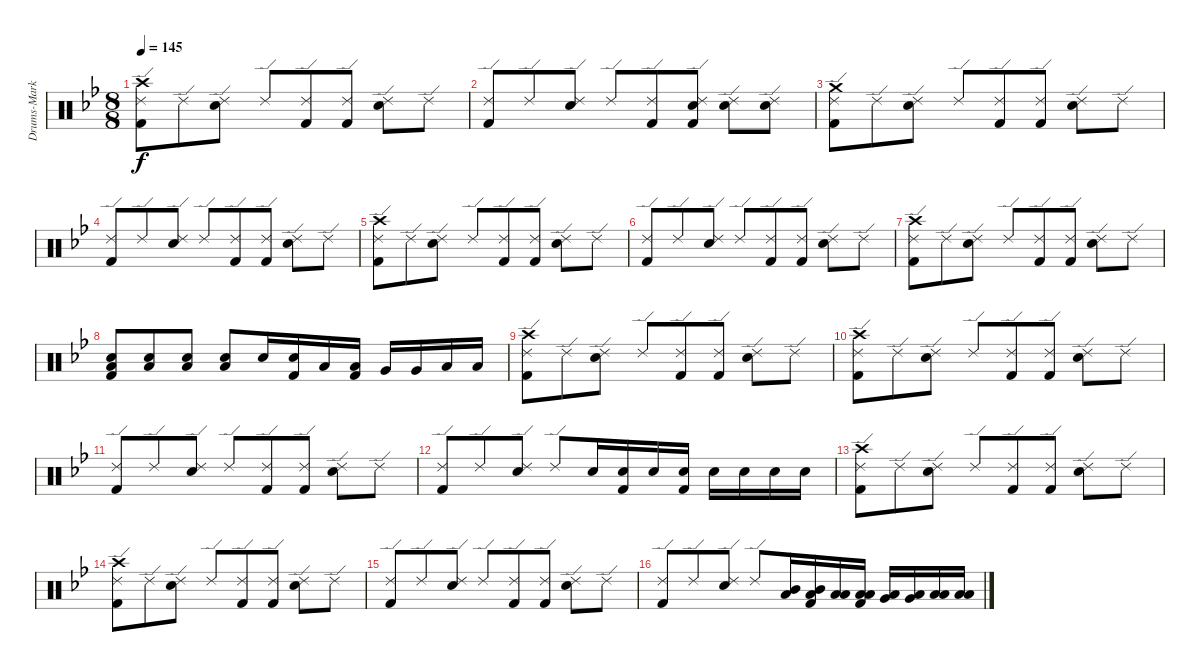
\track ("Drums-Marky" "Drums-Mark") {instrument percussion}
\staff {score}
\articulation defaults
\ts (8 8)
\tempo 145
\clef neutral
\ks bb
("Ride (edge) 2" "Kick (hit) 2" "Crash high (hit)").8{dy f} "Ride (edge) 2".8 ("Ride (edge) 2" "Snare (hit) 2").8 "Ride (edge) 2".8 ("Ride (edge) 2" "Kick (hit) 2").8 ("Ride (edge) 2" "Kick (hit) 2").8 ("Ride (edge) 2" "Snare (hit) 2").8 "Ride (edge) 2".8 |
("Ride (edge) 2" "Kick (hit) 2").8 "Ride (edge) 2".8 ("Ride (edge) 2" "Snare (hit) 2").8 "Ride (edge) 2".8 ("Ride (edge) 2" "Kick (hit) 2").8 ("Ride (edge) 2" "Snare (hit) 2" "Kick (hit) 2").8 ("Ride (edge) 2" "Snare (hit) 2").8 ("Ride (edge) 2" "Snare (hit) 2").8 |
("Ride (edge) 2" "Kick (hit) 2" "Crash medium (hit)").8 "Ride (edge) 2".8 ("Ride (edge) 2" "Snare (hit) 2").8 "Ride (edge) 2".8 ("Ride (edge) 2" "Kick (hit) 2").8 ("Ride (edge) 2" "Kick (hit) 2").8 ("Ride (edge) 2" "Snare (hit) 2").8 "Ride (edge) 2".8 |
("Ride (edge) 2" "Kick (hit) 2").8 "Ride (edge) 2".8 ("Ride (edge) 2" "Snare (hit) 2").8 "Ride (edge) 2".8 ("Ride (edge) 2" "Kick (hit) 2").8 ("Ride (edge) 2" "Kick (hit) 2").8 ("Ride (edge) 2" "Snare (hit) 2").8 "Ride (edge) 2".8 |
("Ride (edge) 2" "Kick (hit) 2" "Crash high (hit)").8 "Ride (edge) 2".8 ("Ride (edge) 2" "Snare (hit) 2").8 "Ride (edge) 2".8 ("Ride (edge) 2" "Kick (hit) 2").8 ("Ride (edge) 2" "Kick (hit) 2").8 ("Ride (edge) 2" "Snare (hit) 2").8 "Ride (edge) 2".8 |
("Ride (edge) 2" "Kick (hit) 2").8 "Ride (edge) 2".8 ("Ride (edge) 2" "Snare (hit) 2").8 "Ride (edge) 2".8 ("Ride (edge) 2" "Kick (hit) 2").8 ("Ride (edge) 2" "Kick (hit) 2").8 ("Ride (edge) 2" "Snare (hit) 2").8 "Ride (edge) 2".8 |
("Ride (edge) 2" "Kick (hit) 2" "Crash high (hit)").8 "Ride (edge) 2".8 ("Ride (edge) 2" "Snare (hit) 2").8 "Ride (edge) 2".8 ("Ride (edge) 2" "Kick (hit) 2").8 ("Ride (edge) 2" "Kick (hit) 2").8 ("Ride (edge) 2" "Snare (hit) 2").8 "Ride (edge) 2".8 |
("Low Floor Tom (hit)" "Snare (hit) 2" "Kick (hit) 2").8 ("Low Floor Tom (hit)" "Snare (hit) 2").8 ("Low Floor Tom (hit)" "Snare (hit) 2").8 ("Low Floor Tom (hit)" "Snare (hit) 2").8 "Snare (hit) 2".16 ("Snare (hit) 2" "Kick (hit) 2").16 "Low Tom (hit)".16 ("Low Tom (hit)" "Kick (hit) 2").16 "Very Low Tom (hit)".16 "Very Low Tom (hit)".16 "Low Floor Tom (hit)".16 "Low Floor Tom (hit)".16 |
("Ride (edge) 2" "Kick (hit) 2" "Crash high (hit)").8 "Ride (edge) 2".8 ("Ride (edge) 2" "Snare (hit) 2").8 "Ride (edge) 2".8 ("Ride (edge) 2" "Kick (hit) 2").8 ("Ride (edge) 2" "Kick (hit) 2").8 ("Ride (edge) 2" "Snare (hit) 2").8 "Ride (edge) 2".8 |
("Ride (edge) 2" "Kick (hit) 2" "Crash high (hit)").8 "Ride (edge) 2".8 ("Ride (edge) 2" "Snare (hit) 2").8 "Ride (edge) 2".8 ("Ride (edge) 2" "Kick (hit) 2").8 ("Ride (edge) 2" "Kick (hit) 2").8 ("Ride (edge) 2" "Snare (hit) 2").8 "Ride (edge) 2".8 |
("Ride (edge) 2" "Kick (hit) 2").8 "Ride (edge) 2".8 ("Ride (edge) 2" "Snare (hit) 2").8 "Ride (edge) 2".8 ("Ride (edge) 2" "Kick (hit) 2").8 ("Ride (edge) 2" "Kick (hit) 2").8 ("Ride (edge) 2" "Snare (hit) 2").8 "Ride (edge) 2".8 |
("Ride (edge) 2" "Kick (hit) 2").8 "Ride (edge) 2".8 ("Ride (edge) 2" "Snare (hit) 2").8 "Ride (edge) 2".8 "Snare (hit) 2".16 ("Snare (hit) 2" "Kick (hit) 2").16 "Snare (hit) 2".16 ("Snare (hit) 2" "Kick (hit) 2").16 "Snare (hit) 2".16 "Snare (hit) 2".16 "Snare (hit) 2".16 "Snare (hit) 2".16 |
("Ride (edge) 2" "Kick (hit) 2" "Crash high (hit)").8 "Ride (edge) 2".8 ("Ride (edge) 2" "Snare (hit) 2").8 "Ride (edge) 2".8 ("Ride (edge) 2" "Kick (hit) 2").8 ("Ride (edge) 2" "Kick (hit) 2").8 ("Ride (edge) 2" "Snare (hit) 2").8 "Ride (edge) 2".8 |
("Ride (edge) 2" "Kick (hit) 2" "Crash high (hit)").8 "Ride (edge) 2".8 ("Ride (edge) 2" "Snare (hit) 2").8 "Ride (edge) 2".8 ("Ride (edge) 2" "Kick (hit) 2").8 ("Ride (edge) 2" "Kick (hit) 2").8 ("Ride (edge) 2" "Snare (hit) 2").8 "Ride (edge) 2".8 |
("Ride (edge) 2" "Kick (hit) 2").8 "Ride (edge) 2".8 ("Ride (edge) 2" "Snare (hit) 2").8 "Ride (edge) 2".8 ("Ride (edge) 2" "Kick (hit) 2").8 ("Ride (edge) 2" "Kick (hit) 2").8 ("Ride (edge) 2" "Snare (hit) 2").8 "Ride (edge) 2".8 |
("Ride (edge) 2" "Kick (hit) 2").8 "Ride (edge) 2".8 ("Ride (edge) 2" "Snare (hit) 2").8 "Ride (edge) 2".8 ("Low Floor Tom (hit)" "Mid Tom (hit)").16 ("Low Floor Tom (hit)" "Mid Tom (hit)" "Kick (hit) 2").16 ("Low Floor Tom (hit)" "Low Tom (hit)").16 ("Low Floor Tom (hit)" "Low Tom (hit)" "Kick (hit) 2").16 ("Low Floor Tom (hit)" "Very Low Tom (hit)").16 ("Low Floor Tom (hit)" "Very Low Tom (hit)").16 ("Low Floor Tom (hit)" "Low Floor Tom (hit)").16 ("Low Floor Tom (hit)" "Low Floor Tom (hit)").16
